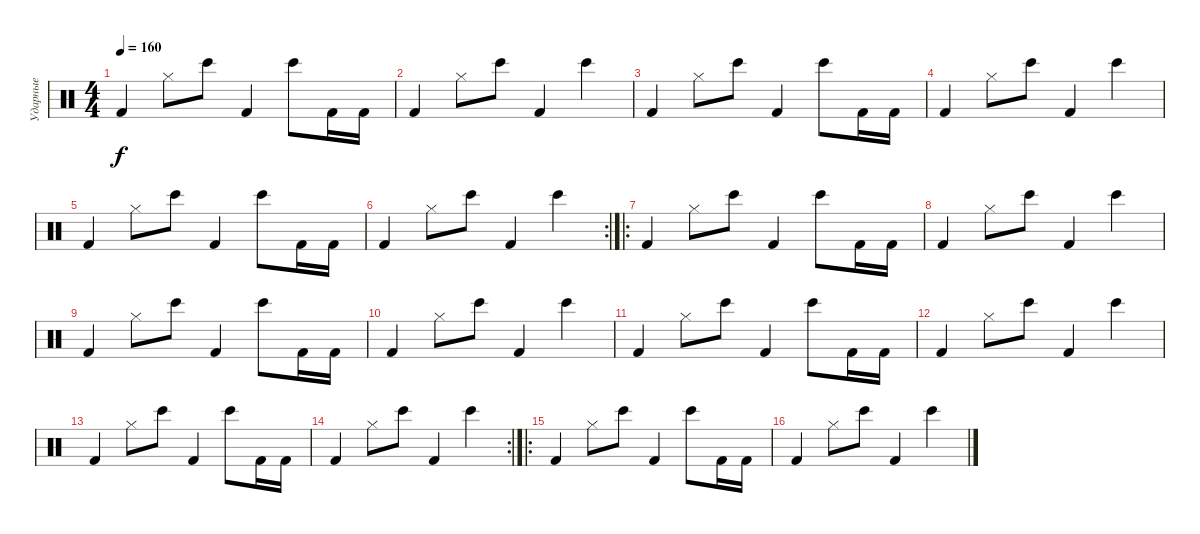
\track ("Ударные" "Ударные") {instrument percussion}
\staff {score}
\articulation defaults
\ts (4 4)
\tempo 160
\clef neutral
\ks c "Kick (hit) 2".4{dy f} "Hi-Hat (closed)".8 "Bongo High (hit)".8 "Kick (hit) 2".4 "Bongo High (hit)".8 "Kick (hit) 2".16 "Kick (hit) 2".16
|
"Kick (hit) 2".4 "Hi-Hat (closed)".8 "Bongo High (hit)".8 "Kick (hit) 2".4 "Bongo High (hit)".4 |
"Kick (hit) 2".4 "Hi-Hat (closed)".8 "Bongo High (hit)".8 "Kick (hit) 2".4 "Bongo High (hit)".8 "Kick (hit) 2".16 "Kick (hit) 2".16 |
"Kick (hit) 2".4 "Hi-Hat (closed)".8 "Bongo High (hit)".8 "Kick (hit) 2".4 "Bongo High (hit)".4 |
"Kick (hit) 2".4 "Hi-Hat (closed)".8 "Bongo High (hit)".8 "Kick (hit) 2".4 "Bongo High (hit)".8 "Kick (hit) 2".16 "Kick (hit) 2".16 |
\rc 2 "Kick (hit) 2".4 "Hi-Hat (closed)".8 "Bongo High (hit)".8 "Kick (hit) 2".4 "Bongo High (hit)".4
|
\ro "Kick (hit) 2".4 "Hi-Hat (closed)".8 "Bongo High (hit)".8 "Kick (hit) 2".4 "Bongo High (hit)".8 "Kick (hit) 2".16 "Kick (hit) 2".16
|
"Kick (hit) 2".4 "Hi-Hat (closed)".8 "Bongo High (hit)".8 "Kick (hit) 2".4 "Bongo High (hit)".4 |
"Kick (hit) 2".4 "Hi-Hat (closed)".8 "Bongo High (hit)".8 "Kick (hit) 2".4 "Bongo High (hit)".8 "Kick (hit) 2".16 "Kick (hit) 2".16 |
"Kick (hit) 2".4 "Hi-Hat (closed)".8 "Bongo High (hit)".8 "Kick (hit) 2".4 "Bongo High (hit)".4 |
"Kick (hit) 2".4 "Hi-Hat (closed)".8 "Bongo High (hit)".8 "Kick (hit) 2".4 "Bongo High (hit)".8 "Kick (hit) 2".16 "Kick (hit) 2".16 |
"Kick (hit) 2".4 "Hi-Hat (closed)".8 "Bongo High (hit)".8 "Kick (hit) 2".4 "Bongo High (hit)".4 |
"Kick (hit) 2".4 "Hi-Hat (closed)".8 "Bongo High (hit)".8 "Kick (hit) 2".4 "Bongo High (hit)".8 "Kick (hit) 2".16 "Kick (hit) 2".16 |
\rc 2 "Kick (hit) 2".4 "Hi-Hat (closed)".8 "Bongo High (hit)".8 "Kick (hit) 2".4 "Bongo High (hit)".4
|
\ro "Kick (hit) 2".4 "Hi-Hat (closed)".8 "Bongo High (hit)".8 "Kick (hit) 2".4 "Bongo High (hit)".8 "Kick (hit) 2".16 "Kick (hit) 2".16
|
"Kick (hit) 2".4 "Hi-Hat (closed)".8 "Bongo High (hit)".8 "Kick (hit) 2".4 "Bongo High (hit)".4
